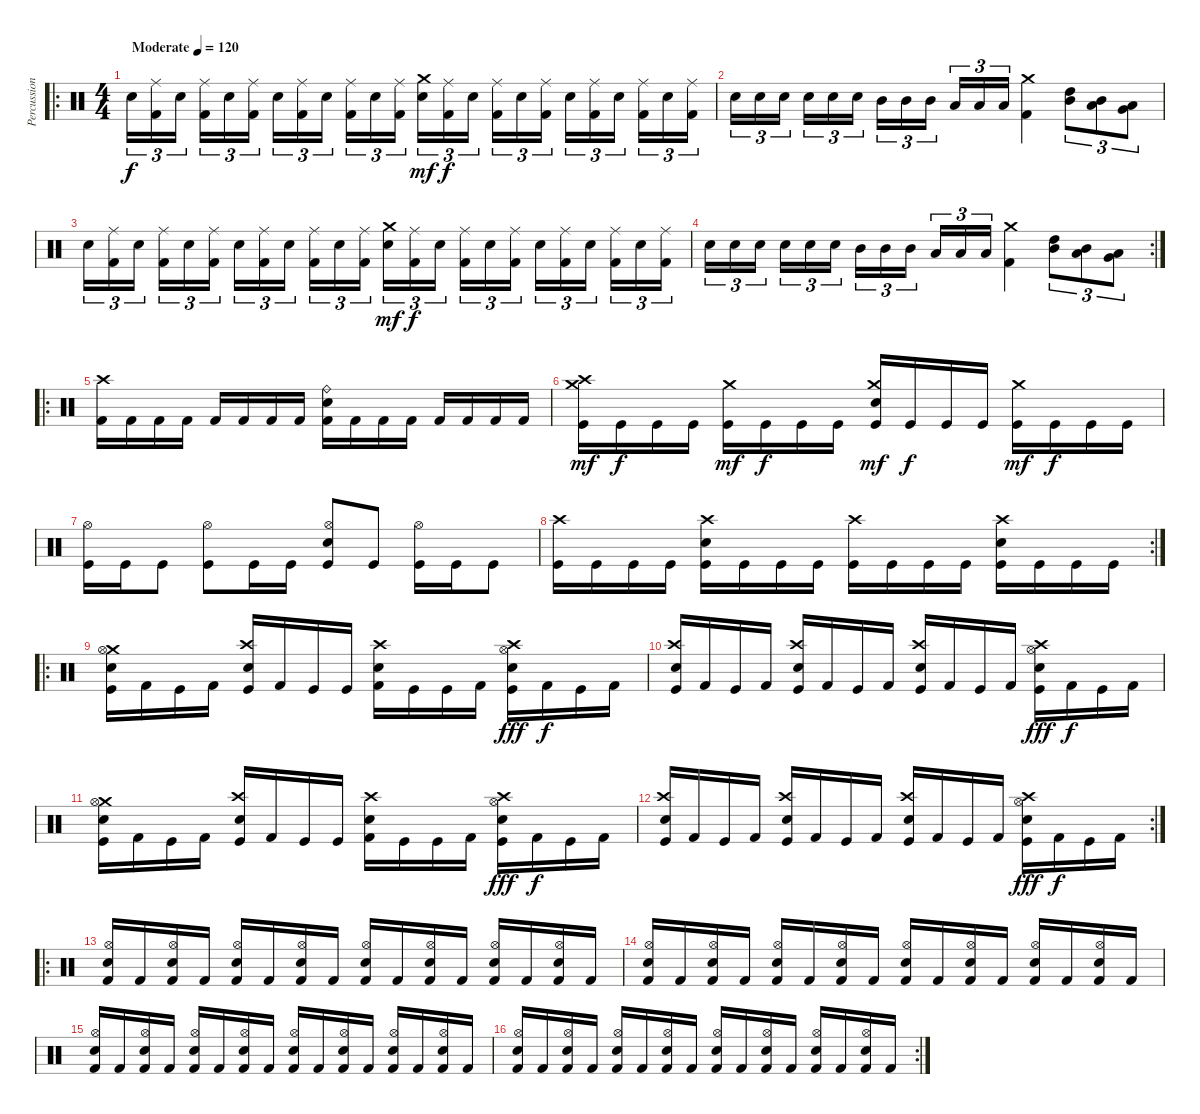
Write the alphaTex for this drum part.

\track ("Percussions" "Percussion") {instrument percussion}
\staff {score}
\articulation defaults
\ro
\ts (4 4)
\tempo (120 "Moderate")
\clef neutral
\ks c "Electric Snare (hit)".16{tu (3 2) dy f}
("Ride (middle)" "Kick (hit) 2").16{tu (3 2)} "Electric Snare (hit)".16{tu (3 2) beam splitsecondary} ("Ride (middle)" "Kick (hit) 2").16{tu (3 2)} "Electric Snare (hit)".16{tu (3 2)} ("Ride (middle)" "Kick (hit) 2").16{tu (3 2)} "Electric Snare (hit)".16{tu (3 2)} ("Ride (middle)" "Kick (hit) 2").16{tu (3 2)} "Electric Snare (hit)".16{tu (3 2) beam splitsecondary} ("Ride (middle)" "Kick (hit) 2").16{tu (3 2)} "Electric Snare (hit)".16{tu (3 2)} ("Ride (middle)" "Kick (hit) 2").16{tu (3 2)} ("Crash medium (hit)" "Electric Snare (hit)").16{tu (3 2) dy mf} ("Ride (middle)" "Kick (hit) 2").16{tu (3 2) dy f} "Electric Snare (hit)".16{tu (3 2) beam splitsecondary} ("Ride (middle)" "Kick (hit) 2").16{tu (3 2)} "Electric Snare (hit)".16{tu (3 2)} ("Ride (middle)" "Kick (hit) 2").16{tu (3 2)} "Electric Snare (hit)".16{tu (3 2)} ("Ride (middle)" "Kick (hit) 2").16{tu (3 2)} "Electric Snare (hit)".16{tu (3 2) beam splitsecondary} ("Ride (middle)" "Kick (hit) 2").16{tu (3 2)} "Electric Snare (hit)".16{tu (3 2)} ("Ride (middle)" "Kick (hit) 2").16{tu (3 2)} |
"Electric Snare (hit)".16{tu (3 2)} "Electric Snare (hit)".16{tu (3 2)} "Electric Snare (hit)".16{tu (3 2) beam splitsecondary} "Electric Snare (hit)".16{tu (3 2)} "Electric Snare (hit)".16{tu (3 2)} "Electric Snare (hit)".16{tu (3 2)} "Mid Tom (hit)".16{tu (3 2)} "Mid Tom (hit)".16{tu (3 2)} "Mid Tom (hit)".16{tu (3 2) beam splitsecondary} "Low Tom (hit)".16{tu (3 2)} "Low Tom (hit)".16{tu (3 2)} "Low Tom (hit)".16{tu (3 2)} ("Crash medium (hit)" "Kick (hit) 2").4 ("High Tom (hit)" "Mid Tom (hit)").8{tu (3 2)} ("Mid Tom (hit)" "Low Tom (hit)").8{tu (3 2)} ("Low Tom (hit)" "Very Low Tom (hit)").8{tu (3 2)} |
"Electric Snare (hit)".16{tu (3 2)} ("Ride (middle)" "Kick (hit) 2").16{tu (3 2)} "Electric Snare (hit)".16{tu (3 2) beam splitsecondary} ("Ride (middle)" "Kick (hit) 2").16{tu (3 2)} "Electric Snare (hit)".16{tu (3 2)} ("Ride (middle)" "Kick (hit) 2").16{tu (3 2)} "Electric Snare (hit)".16{tu (3 2)} ("Ride (middle)" "Kick (hit) 2").16{tu (3 2)} "Electric Snare (hit)".16{tu (3 2) beam splitsecondary} ("Ride (middle)" "Kick (hit) 2").16{tu (3 2)} "Electric Snare (hit)".16{tu (3 2)} ("Ride (middle)" "Kick (hit) 2").16{tu (3 2)} ("Crash medium (hit)" "Electric Snare (hit)").16{tu (3 2) dy mf} ("Ride (middle)" "Kick (hit) 2").16{tu (3 2) dy f} "Electric Snare (hit)".16{tu (3 2) beam splitsecondary} ("Ride (middle)" "Kick (hit) 2").16{tu (3 2)} "Electric Snare (hit)".16{tu (3 2)} ("Ride (middle)" "Kick (hit) 2").16{tu (3 2)} "Electric Snare (hit)".16{tu (3 2)} ("Ride (middle)" "Kick (hit) 2").16{tu (3 2)} "Electric Snare (hit)".16{tu (3 2) beam splitsecondary} ("Ride (middle)" "Kick (hit) 2").16{tu (3 2)} "Electric Snare (hit)".16{tu (3 2)} ("Ride (middle)" "Kick (hit) 2").16{tu (3 2)} |
\rc 2 "Electric Snare (hit)".16{tu (3 2)} "Electric Snare (hit)".16{tu (3 2)} "Electric Snare (hit)".16{tu (3 2) beam splitsecondary} "Electric Snare (hit)".16{tu (3 2)} "Electric Snare (hit)".16{tu (3 2)} "Electric Snare (hit)".16{tu (3 2)} "Mid Tom (hit)".16{tu (3 2)} "Mid Tom (hit)".16{tu (3 2)} "Mid Tom (hit)".16{tu (3 2) beam splitsecondary} "Low Tom (hit)".16{tu (3 2)} "Low Tom (hit)".16{tu (3 2)} "Low Tom (hit)".16{tu (3 2)}
("Crash medium (hit)" "Kick (hit) 2").4 ("High Tom (hit)" "Mid Tom (hit)").8{tu (3 2)} ("Mid Tom (hit)" "Low Tom (hit)").8{tu (3 2)} ("Low Tom (hit)" "Very Low Tom (hit)").8{tu (3 2)} |
\ro
("Crash high (hit)" "Kick (hit) 2").16 "Kick (hit) 2".16 "Kick (hit) 2".16 "Kick (hit) 2".16 "Kick (hit) 2".16 "Kick (hit) 2".16 "Kick (hit) 2".16 "Kick (hit) 2".16 ("Ride (bell)" "Electric Snare (hit)" "Kick (hit) 2").16 "Kick (hit) 2".16 "Kick (hit) 2".16 "Kick (hit) 2".16 "Kick (hit) 2".16 "Kick (hit) 2".16 "Kick (hit) 2".16 "Kick (hit) 2".16 |
("Kick (hit)" "Crash medium (hit)" "Crash high (hit)").16{dy mf} "Kick (hit)".16{dy f} "Kick (hit)".16 "Kick (hit)".16 ("Kick (hit)" "Crash medium (hit)").16{dy mf} "Kick (hit)".16{dy f} "Kick (hit)".16 "Kick (hit)".16 ("Kick (hit)" "Electric Snare (hit)" "Crash medium (hit)").16{dy mf} "Kick (hit)".16{dy f} "Kick (hit)".16 "Kick (hit)".16 ("Kick (hit)" "Crash medium (hit)").16{dy mf} "Kick (hit)".16{dy f} "Kick (hit)".16 "Kick (hit)".16 |
("Hi-Hat (open)" "Kick (hit)").16 "Kick (hit)".16 "Kick (hit)".8 ("Hi-Hat (open)" "Kick (hit)").8 "Kick (hit)".16 "Kick (hit)".16 ("Hi-Hat (open)" "Snare (hit) 2" "Kick (hit)").8 "Kick (hit)".8 ("Hi-Hat (open)" "Kick (hit)").16 "Kick (hit)".16 "Kick (hit)".8 |
\rc 2
("Crash high (hit)" "Kick (hit)").16 "Kick (hit)".16 "Kick (hit)".16 "Kick (hit)".16 ("Crash high (hit)" "Snare (hit) 2" "Kick (hit)").16 "Kick (hit)".16 "Kick (hit)".16 "Kick (hit)".16 ("Crash high (hit)" "Kick (hit)").16 "Kick (hit)".16 "Kick (hit)".16 "Kick (hit)".16 ("Crash high (hit)" "Snare (hit) 2" "Kick (hit)").16 "Kick (hit)".16 "Kick (hit)".16 "Kick (hit)".16 |
\ro
("Crash medium (hit)" "Electric Snare (hit)" "Hi-Hat (open)" "Kick (hit)").16 "Kick (hit) 2".16 "Kick (hit)".16 "Kick (hit) 2".16 ("Crash high (hit)" "Electric Snare (hit)" "Kick (hit)").16 "Kick (hit) 2".16 "Kick (hit)".16 "Kick (hit)".16 ("Crash high (hit)" "Electric Snare (hit)" "Kick (hit) 2").16 "Kick (hit)".16 "Kick (hit)".16 "Kick (hit) 2".16 ("Crash high (hit)" "Hi-Hat (open)" "Electric Snare (hit)" "Kick (hit)").16{dy fff} "Kick (hit) 2".16{dy f} "Kick (hit)".16 "Kick (hit) 2".16 |
("Crash high (hit)" "Electric Snare (hit)" "Kick (hit)").16 "Kick (hit) 2".16 "Kick (hit)".16 "Kick (hit) 2".16 ("Crash high (hit)" "Electric Snare (hit)" "Kick (hit)").16 "Kick (hit) 2".16 "Kick (hit)".16 "Kick (hit) 2".16 ("Crash high (hit)" "Electric Snare (hit)" "Kick (hit)").16 "Kick (hit) 2".16 "Kick (hit)".16 "Kick (hit) 2".16 ("Crash high (hit)" "Hi-Hat (open)" "Electric Snare (hit)" "Kick (hit)").16{dy fff} "Kick (hit) 2".16{dy f} "Kick (hit)".16 "Kick (hit) 2".16 |
("Crash medium (hit)" "Electric Snare (hit)" "Hi-Hat (open)" "Kick (hit)").16 "Kick (hit) 2".16 "Kick (hit)".16 "Kick (hit) 2".16 ("Crash high (hit)" "Electric Snare (hit)" "Kick (hit)").16 "Kick (hit) 2".16 "Kick (hit)".16 "Kick (hit)".16 ("Crash high (hit)" "Electric Snare (hit)" "Kick (hit) 2").16 "Kick (hit)".16 "Kick (hit)".16 "Kick (hit) 2".16 ("Crash high (hit)" "Hi-Hat (open)" "Electric Snare (hit)" "Kick (hit)").16{dy fff} "Kick (hit) 2".16{dy f} "Kick (hit)".16 "Kick (hit) 2".16 |
\rc 2
("Crash high (hit)" "Electric Snare (hit)" "Kick (hit)").16 "Kick (hit) 2".16 "Kick (hit)".16 "Kick (hit) 2".16 ("Crash high (hit)" "Electric Snare (hit)" "Kick (hit)").16 "Kick (hit) 2".16 "Kick (hit)".16 "Kick (hit) 2".16 ("Crash high (hit)" "Electric Snare (hit)" "Kick (hit)").16 "Kick (hit) 2".16 "Kick (hit)".16 "Kick (hit) 2".16 ("Crash high (hit)" "Hi-Hat (open)" "Electric Snare (hit)" "Kick (hit)").16{dy fff} "Kick (hit) 2".16{dy f} "Kick (hit)".16 "Kick (hit) 2".16 |
\ro
("Hi-Hat (open)" "Snare (hit) 2" "Kick (hit) 2").16 "Kick (hit) 2".16 ("Hi-Hat (open)" "Snare (hit) 2" "Kick (hit) 2").16 "Kick (hit) 2".16 ("Hi-Hat (open)" "Snare (hit) 2" "Kick (hit) 2").16 "Kick (hit) 2".16 ("Hi-Hat (open)" "Snare (hit) 2" "Kick (hit) 2").16 "Kick (hit) 2".16 ("Hi-Hat (open)" "Snare (hit) 2" "Kick (hit) 2").16 "Kick (hit) 2".16 ("Hi-Hat (open)" "Snare (hit) 2" "Kick (hit) 2").16 "Kick (hit) 2".16 ("Hi-Hat (open)" "Snare (hit) 2" "Kick (hit) 2").16 "Kick (hit) 2".16 ("Hi-Hat (open)" "Snare (hit) 2" "Kick (hit) 2").16 "Kick (hit) 2".16 |
("Hi-Hat (open)" "Snare (hit) 2" "Kick (hit) 2").16 "Kick (hit) 2".16 ("Hi-Hat (open)" "Snare (hit) 2" "Kick (hit) 2").16 "Kick (hit) 2".16 ("Hi-Hat (open)" "Snare (hit) 2" "Kick (hit) 2").16 "Kick (hit) 2".16 ("Hi-Hat (open)" "Snare (hit) 2" "Kick (hit) 2").16 "Kick (hit) 2".16 ("Hi-Hat (open)" "Snare (hit) 2" "Kick (hit) 2").16 "Kick (hit) 2".16 ("Hi-Hat (open)" "Snare (hit) 2" "Kick (hit) 2").16 "Kick (hit) 2".16 ("Hi-Hat (open)" "Snare (hit) 2" "Kick (hit) 2").16 "Kick (hit) 2".16 ("Hi-Hat (open)" "Snare (hit) 2" "Kick (hit) 2").16 "Kick (hit) 2".16 |
("Hi-Hat (open)" "Snare (hit) 2" "Kick (hit) 2").16 "Kick (hit) 2".16 ("Hi-Hat (open)" "Snare (hit) 2" "Kick (hit) 2").16 "Kick (hit) 2".16 ("Hi-Hat (open)" "Snare (hit) 2" "Kick (hit) 2").16 "Kick (hit) 2".16 ("Hi-Hat (open)" "Snare (hit) 2" "Kick (hit) 2").16 "Kick (hit) 2".16 ("Hi-Hat (open)" "Snare (hit) 2" "Kick (hit) 2").16 "Kick (hit) 2".16 ("Hi-Hat (open)" "Snare (hit) 2" "Kick (hit) 2").16 "Kick (hit) 2".16 ("Hi-Hat (open)" "Snare (hit) 2" "Kick (hit) 2").16 "Kick (hit) 2".16 ("Hi-Hat (open)" "Snare (hit) 2" "Kick (hit) 2").16 "Kick (hit) 2".16 |
\rc 2
("Hi-Hat (open)" "Snare (hit) 2" "Kick (hit) 2").16 "Kick (hit) 2".16 ("Hi-Hat (open)" "Snare (hit) 2" "Kick (hit) 2").16 "Kick (hit) 2".16 ("Hi-Hat (open)" "Snare (hit) 2" "Kick (hit) 2").16 "Kick (hit) 2".16 ("Hi-Hat (open)" "Snare (hit) 2" "Kick (hit) 2").16 "Kick (hit) 2".16 ("Hi-Hat (open)" "Snare (hit) 2" "Kick (hit) 2").16 "Kick (hit) 2".16 ("Hi-Hat (open)" "Snare (hit) 2" "Kick (hit) 2").16 "Kick (hit) 2".16 ("Hi-Hat (open)" "Snare (hit) 2" "Kick (hit) 2").16 "Kick (hit) 2".16 ("Hi-Hat (open)" "Snare (hit) 2" "Kick (hit) 2").16 "Kick (hit) 2".16
